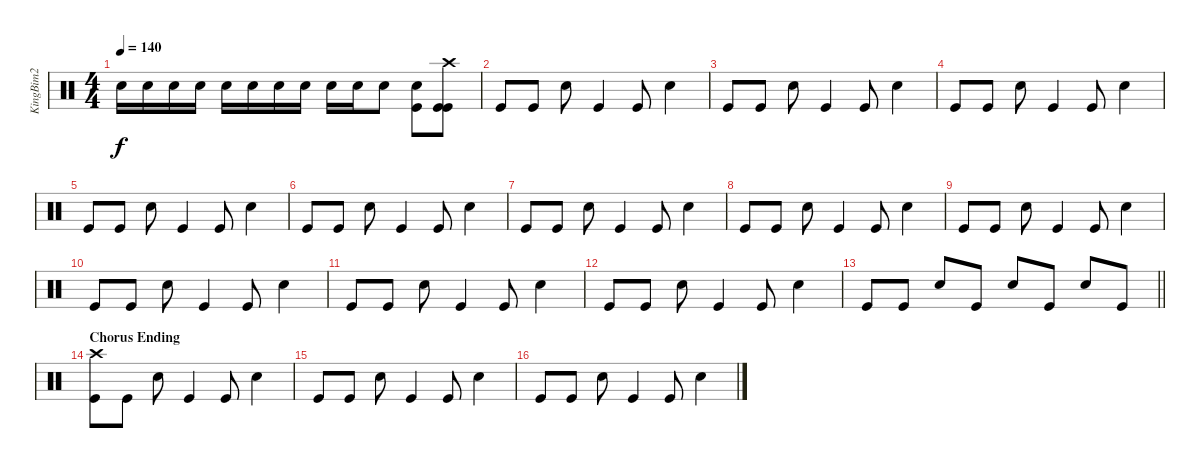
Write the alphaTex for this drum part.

\track ("KingBim2" "KingBim2") {instrument percussion}
\staff {score}
\articulation defaults
\ts (4 4)
\tempo 140
\clef neutral
\ks c "Snare (hit) 2".16{dy f} "Snare (hit) 2".16 "Snare (hit) 2".16 "Snare (hit) 2".16 "Snare (hit) 2".16 "Snare (hit) 2".16 "Snare (hit) 2".16 "Snare (hit) 2".16 "Snare (hit) 2".16 "Snare (hit) 2".16 "Snare (hit) 2".8
("Snare (hit) 2" "Kick (hit)").8 ("Crash high (hit)" "Kick (hit)" "Kick (hit)").8 |
"Kick (hit)".8 "Kick (hit)".8 "Snare (hit) 2".8 "Kick (hit)".4 "Kick (hit)".8 "Snare (hit) 2".4 |
"Kick (hit)".8 "Kick (hit)".8 "Snare (hit) 2".8 "Kick (hit)".4 "Kick (hit)".8 "Snare (hit) 2".4 |
"Kick (hit)".8 "Kick (hit)".8 "Snare (hit) 2".8 "Kick (hit)".4 "Kick (hit)".8 "Snare (hit) 2".4 |
"Kick (hit)".8 "Kick (hit)".8 "Snare (hit) 2".8 "Kick (hit)".4 "Kick (hit)".8 "Snare (hit) 2".4 |
"Kick (hit)".8 "Kick (hit)".8 "Snare (hit) 2".8 "Kick (hit)".4 "Kick (hit)".8 "Snare (hit) 2".4 |
"Kick (hit)".8 "Kick (hit)".8 "Snare (hit) 2".8 "Kick (hit)".4 "Kick (hit)".8 "Snare (hit) 2".4 |
"Kick (hit)".8 "Kick (hit)".8 "Snare (hit) 2".8 "Kick (hit)".4 "Kick (hit)".8 "Snare (hit) 2".4 |
"Kick (hit)".8 "Kick (hit)".8 "Snare (hit) 2".8 "Kick (hit)".4 "Kick (hit)".8 "Snare (hit) 2".4 |
"Kick (hit)".8 "Kick (hit)".8 "Snare (hit) 2".8 "Kick (hit)".4 "Kick (hit)".8 "Snare (hit) 2".4 |
"Kick (hit)".8 "Kick (hit)".8 "Snare (hit) 2".8 "Kick (hit)".4 "Kick (hit)".8 "Snare (hit) 2".4 |
"Kick (hit)".8 "Kick (hit)".8 "Snare (hit) 2".8 "Kick (hit)".4 "Kick (hit)".8 "Snare (hit) 2".4 |
\barLineRight lightlight "Kick (hit)".8 "Kick (hit)".8 "Snare (hit) 2".8 "Kick (hit)".8 "Snare (hit) 2".8 "Kick (hit)".8 "Snare (hit) 2".8 "Kick (hit)".8
|
\section ("" "Chorus Ending")
("Crash high (hit)" "Kick (hit)").8 "Kick (hit)".8 "Snare (hit) 2".8 "Kick (hit)".4 "Kick (hit)".8 "Snare (hit) 2".4 |
"Kick (hit)".8 "Kick (hit)".8 "Snare (hit) 2".8 "Kick (hit)".4 "Kick (hit)".8 "Snare (hit) 2".4 |
"Kick (hit)".8 "Kick (hit)".8 "Snare (hit) 2".8 "Kick (hit)".4 "Kick (hit)".8 "Snare (hit) 2".4
